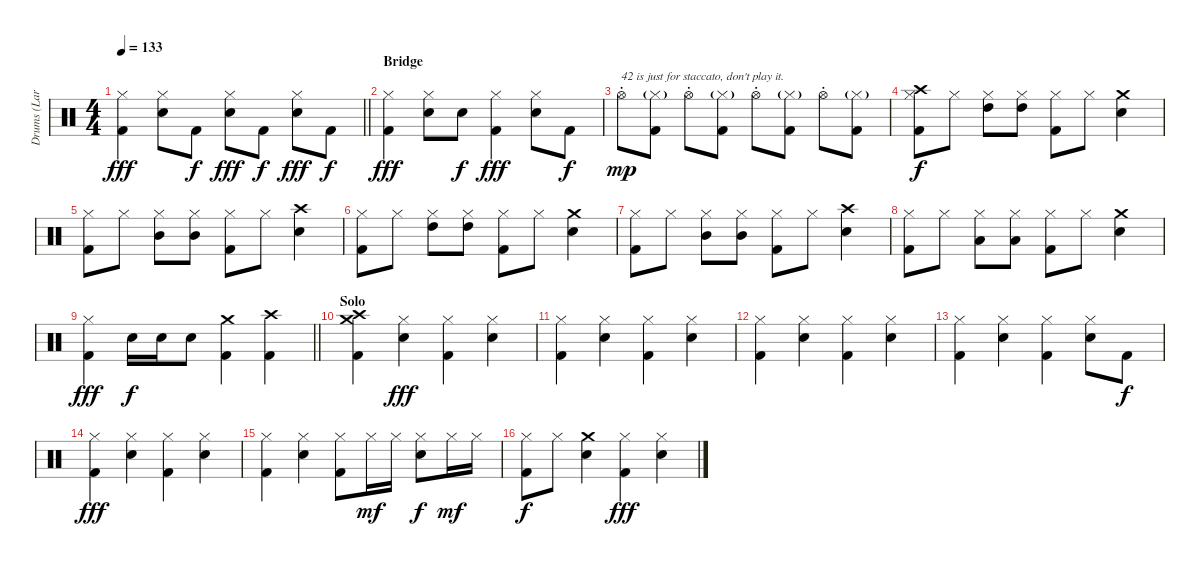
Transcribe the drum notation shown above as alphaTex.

\track ("Drums (Lars)" "Drums (Lar") {instrument percussion}
\staff {score}
\articulation defaults
\ts (4 4)
\tempo 133
\clef neutral
\barLineRight lightlight
\ks c
("Hi-Hat (closed)" "Kick (hit) 2").4{dy fff} ("Hi-Hat (closed)" "Snare (hit) 2").8 "Kick (hit) 2".8{dy f} ("Hi-Hat (closed)" "Snare (hit) 2").8{dy fff} "Kick (hit) 2".8{dy f} ("Hi-Hat (closed)" "Snare (hit) 2").8{dy fff} "Kick (hit) 2".8{dy f} |
\section ("" "Bridge")
("Hi-Hat (closed)" "Kick (hit) 2").4{dy fff} ("Hi-Hat (closed)" "Snare (hit) 2").8 "Snare (hit) 2".8{dy f} ("Hi-Hat (closed)" "Kick (hit) 2").4{dy fff} ("Hi-Hat (closed)" "Snare (hit) 2").8 "Kick (hit) 2".8{dy f} |
"Hi-Hat (open)"{st}.8{txt "42 is just for staccato, don't play it." dy mp} ("Hi-Hat (closed)"{g} "Kick (hit) 2").8 "Hi-Hat (open)"{st}.8 ("Hi-Hat (closed)"{g} "Kick (hit) 2").8 "Hi-Hat (open)"{st}.8 ("Hi-Hat (closed)"{g} "Kick (hit) 2").8 "Hi-Hat (open)"{st}.8 ("Hi-Hat (closed)"{g} "Kick (hit) 2").8 |
("Crash high (hit)" "Hi-Hat (closed)" "Kick (hit) 2").8{dy f} "Hi-Hat (closed)".8 ("Hi-Hat (closed)" "High Tom (hit)").8 ("Hi-Hat (closed)" "High Tom (hit)").8 ("Hi-Hat (closed)" "Kick (hit) 2").8 "Hi-Hat (closed)".8 ("Crash medium (hit)" "Snare (hit) 2").4 |
("Hi-Hat (closed)" "Kick (hit) 2").8 "Hi-Hat (closed)".8 ("Hi-Hat (closed)" "Mid Tom (hit)").8 ("Hi-Hat (closed)" "Mid Tom (hit)").8 ("Hi-Hat (closed)" "Kick (hit) 2").8 "Hi-Hat (closed)".8 ("Crash high (hit)" "Snare (hit) 2").4 |
("Hi-Hat (closed)" "Kick (hit) 2").8 "Hi-Hat (closed)".8 ("Hi-Hat (closed)" "High Tom (hit)").8 ("Hi-Hat (closed)" "High Tom (hit)").8 ("Hi-Hat (closed)" "Kick (hit) 2").8 "Hi-Hat (closed)".8 ("Crash medium (hit)" "Snare (hit) 2").4 |
("Hi-Hat (closed)" "Kick (hit) 2").8 "Hi-Hat (closed)".8 ("Hi-Hat (closed)" "Mid Tom (hit)").8 ("Hi-Hat (closed)" "Mid Tom (hit)").8 ("Hi-Hat (closed)" "Kick (hit) 2").8 "Hi-Hat (closed)".8 ("Crash high (hit)" "Snare (hit) 2").4 |
("Hi-Hat (closed)" "Kick (hit) 2").8 "Hi-Hat (closed)".8 ("Hi-Hat (closed)" "Low Tom (hit)").8 ("Hi-Hat (closed)" "Low Tom (hit)").8 ("Hi-Hat (closed)" "Kick (hit) 2").8 "Hi-Hat (closed)".8 ("Crash medium (hit)" "Snare (hit) 2").4 |
\barLineRight lightlight
("Hi-Hat (closed)" "Kick (hit) 2").4{dy fff} "Snare (hit) 2".16{dy f} "Snare (hit) 2".16 "Snare (hit) 2".8 ("Crash medium (hit)" "Kick (hit) 2").4 ("Crash high (hit)" "Kick (hit) 2").4 |
\section ("" "Solo")
("Crash high (hit)" "Crash medium (hit)" "Kick (hit) 2").4 ("Hi-Hat (closed)" "Snare (hit) 2").4{dy fff} ("Hi-Hat (closed)" "Kick (hit) 2").4 ("Hi-Hat (closed)" "Snare (hit) 2").4 |
("Hi-Hat (closed)" "Kick (hit) 2").4 ("Hi-Hat (closed)" "Snare (hit) 2").4 ("Hi-Hat (closed)" "Kick (hit) 2").4 ("Hi-Hat (closed)" "Snare (hit) 2").4 |
("Hi-Hat (closed)" "Kick (hit) 2").4 ("Hi-Hat (closed)" "Snare (hit) 2").4 ("Hi-Hat (closed)" "Kick (hit) 2").4 ("Hi-Hat (closed)" "Snare (hit) 2").4 |
("Hi-Hat (closed)" "Kick (hit) 2").4 ("Hi-Hat (closed)" "Snare (hit) 2").4 ("Hi-Hat (closed)" "Kick (hit) 2").4 ("Hi-Hat (closed)" "Snare (hit) 2").8 "Kick (hit) 2".8{dy f} |
("Hi-Hat (closed)" "Kick (hit) 2").4{dy fff} ("Hi-Hat (closed)" "Snare (hit) 2").4 ("Hi-Hat (closed)" "Kick (hit) 2").4 ("Hi-Hat (closed)" "Snare (hit) 2").4 |
("Hi-Hat (closed)" "Kick (hit) 2").4 ("Hi-Hat (closed)" "Snare (hit) 2").4 ("Hi-Hat (closed)" "Kick (hit) 2").8 "Hi-Hat (closed)".16{dy mf} "Hi-Hat (closed)".16 ("Hi-Hat (closed)" "Snare (hit) 2").8{dy f} "Hi-Hat (closed)".16{dy mf} "Hi-Hat (closed)".16 |
("Hi-Hat (closed)" "Kick (hit) 2").8{dy f} "Hi-Hat (closed)".8 ("Crash medium (hit)" "Snare (hit) 2").4 ("Hi-Hat (closed)" "Kick (hit) 2").4{dy fff} ("Hi-Hat (closed)" "Snare (hit) 2").4
